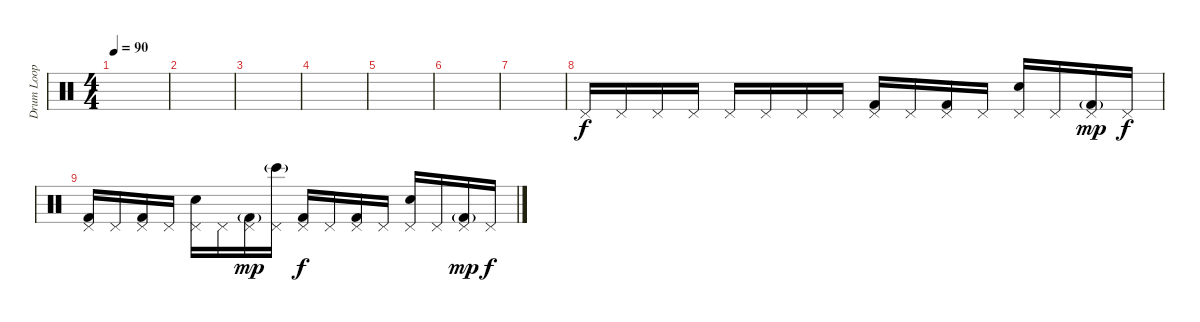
\track ("Drum Loop" "Drum Loop") {instrument percussion}
\staff {score}
\articulation defaults
\ts (4 4)
\tempo 90
\clef neutral
\ks c
|
|
|
|
|
|
|
"Pedal Hi-Hat (hit)".16 "Pedal Hi-Hat (hit)".16 "Pedal Hi-Hat (hit)".16 "Pedal Hi-Hat (hit)".16 "Pedal Hi-Hat (hit)".16 "Pedal Hi-Hat (hit)".16 "Pedal Hi-Hat (hit)".16 "Pedal Hi-Hat (hit)".16 ("Pedal Hi-Hat (hit)" "Kick (hit) 2").16 "Pedal Hi-Hat (hit)".16 ("Pedal Hi-Hat (hit)" "Kick (hit) 2").16 "Pedal Hi-Hat (hit)".16 ("Pedal Hi-Hat (hit)" "Snare (hit) 2").16 "Pedal Hi-Hat (hit)".16 ("Pedal Hi-Hat (hit)" "Kick (hit) 2"{g}).16{dy mp} "Pedal Hi-Hat (hit)".16{dy f} |
("Pedal Hi-Hat (hit)" "Kick (hit) 2").16 "Pedal Hi-Hat (hit)".16 ("Pedal Hi-Hat (hit)" "Kick (hit) 2").16 "Pedal Hi-Hat (hit)".16 ("Pedal Hi-Hat (hit)" "Electric Snare (hit)").16 "Pedal Hi-Hat (hit)".16 ("Pedal Hi-Hat (hit)" "Kick (hit) 2"{g}).16{dy mp} ("Pedal Hi-Hat (hit)" "Bongo High (hit)"{g}).16 ("Pedal Hi-Hat (hit)" "Kick (hit) 2").16{dy f} "Pedal Hi-Hat (hit)".16 ("Pedal Hi-Hat (hit)" "Kick (hit) 2").16 "Pedal Hi-Hat (hit)".16 ("Pedal Hi-Hat (hit)" "Electric Snare (hit)").16 "Pedal Hi-Hat (hit)".16 ("Pedal Hi-Hat (hit)" "Kick (hit) 2"{g}).16{dy mp} "Pedal Hi-Hat (hit)".16{dy f}
